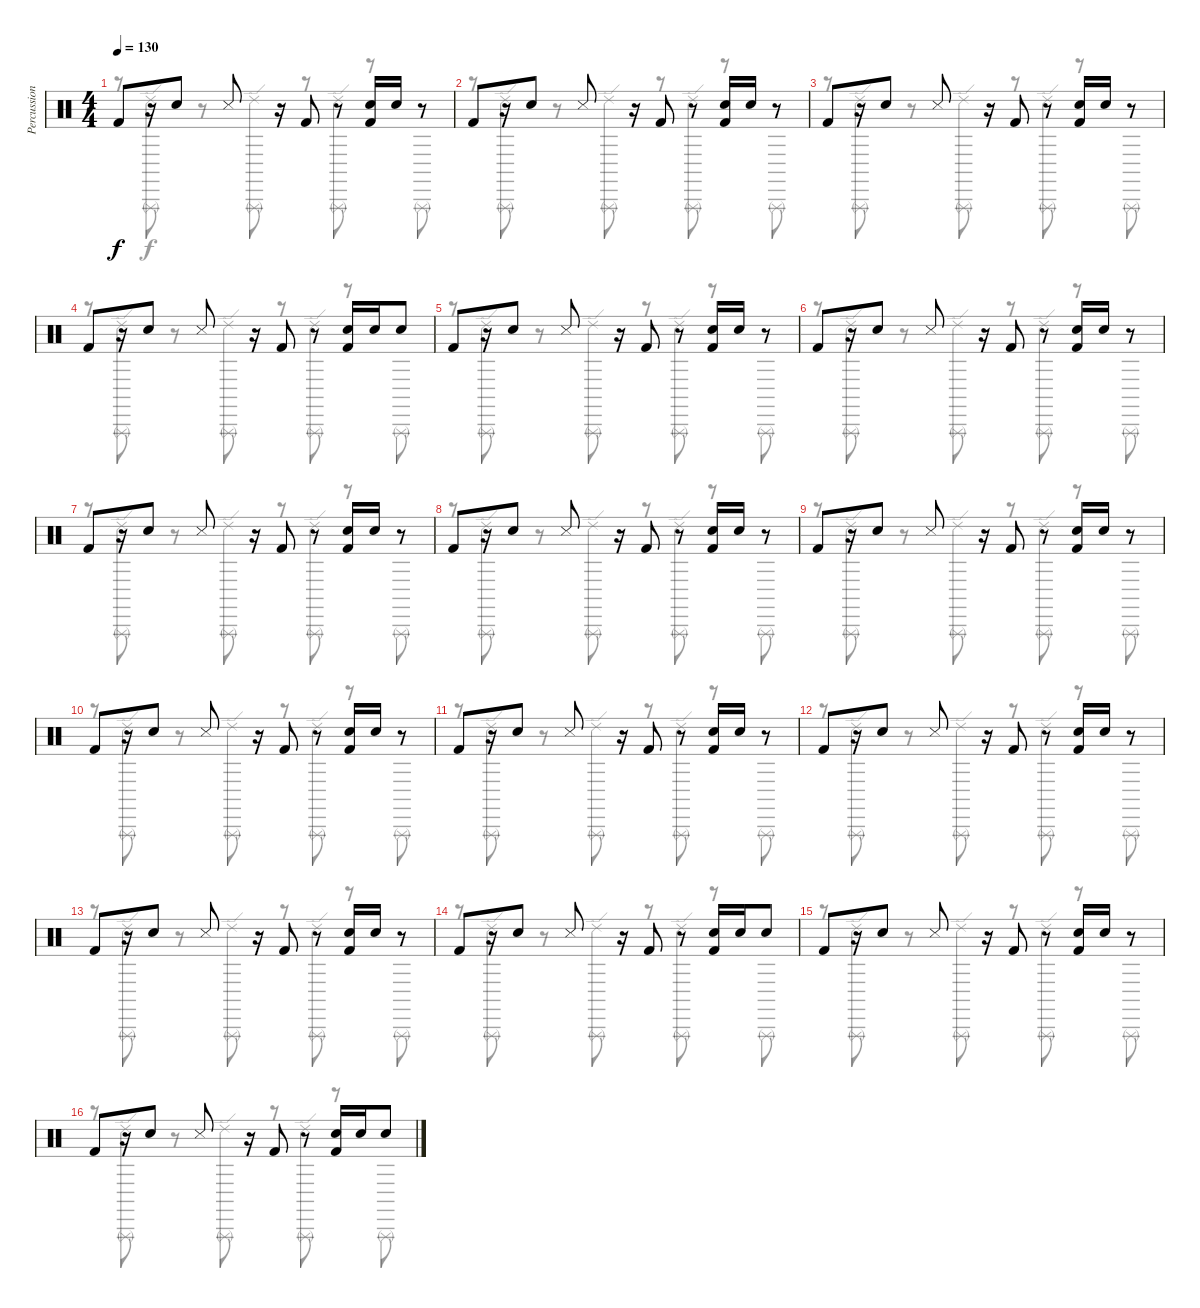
\track ("Percussion" "Percussion") {instrument percussion}
\staff {score}
\articulation defaults
\voice
\ts (4 4)
\tempo 130
\clef neutral
\ks c "Kick (hit) 2".8{dy f}
r.16 "Electric Snare (hit)".8 "Snare (side stick) 3".8 r.16 "Kick (hit) 2".8 r.8 ("Electric Snare (hit)" "Kick (hit) 2").16 "Electric Snare (hit)".16 r.8 |
"Kick (hit) 2".8 r.16 "Electric Snare (hit)".8 "Snare (side stick) 3".8 r.16 "Kick (hit) 2".8 r.8 ("Electric Snare (hit)" "Kick (hit) 2").16 "Electric Snare (hit)".16 r.8 |
"Kick (hit) 2".8 r.16 "Electric Snare (hit)".8 "Snare (side stick) 3".8 r.16 "Kick (hit) 2".8 r.8 ("Electric Snare (hit)" "Kick (hit) 2").16 "Electric Snare (hit)".16 r.8 |
"Kick (hit) 2".8 r.16 "Electric Snare (hit)".8 "Snare (side stick) 3".8 r.16 "Kick (hit) 2".8 r.8 ("Electric Snare (hit)" "Kick (hit) 2").16 "Electric Snare (hit)".16 "Electric Snare (hit)".8 |
"Kick (hit) 2".8 r.16 "Electric Snare (hit)".8 "Snare (side stick) 3".8 r.16 "Kick (hit) 2".8 r.8 ("Electric Snare (hit)" "Kick (hit) 2").16 "Electric Snare (hit)".16 r.8 |
"Kick (hit) 2".8 r.16 "Electric Snare (hit)".8 "Snare (side stick) 3".8 r.16 "Kick (hit) 2".8 r.8 ("Electric Snare (hit)" "Kick (hit) 2").16 "Electric Snare (hit)".16 r.8 |
"Kick (hit) 2".8 r.16 "Electric Snare (hit)".8 "Snare (side stick) 3".8 r.16 "Kick (hit) 2".8 r.8 ("Electric Snare (hit)" "Kick (hit) 2").16 "Electric Snare (hit)".16 r.8 |
"Kick (hit) 2".8 r.16 "Electric Snare (hit)".8 "Snare (side stick) 3".8 r.16 "Kick (hit) 2".8 r.8 ("Electric Snare (hit)" "Kick (hit) 2").16 "Electric Snare (hit)".16 r.8 |
"Kick (hit) 2".8 r.16 "Electric Snare (hit)".8 "Snare (side stick) 3".8 r.16 "Kick (hit) 2".8 r.8 ("Electric Snare (hit)" "Kick (hit) 2").16 "Electric Snare (hit)".16 r.8 |
"Kick (hit) 2".8 r.16 "Electric Snare (hit)".8 "Snare (side stick) 3".8 r.16 "Kick (hit) 2".8 r.8 ("Electric Snare (hit)" "Kick (hit) 2").16 "Electric Snare (hit)".16 r.8 |
"Kick (hit) 2".8 r.16 "Electric Snare (hit)".8 "Snare (side stick) 3".8 r.16 "Kick (hit) 2".8 r.8 ("Electric Snare (hit)" "Kick (hit) 2").16 "Electric Snare (hit)".16 r.8 |
"Kick (hit) 2".8 r.16 "Electric Snare (hit)".8 "Snare (side stick) 3".8 r.16 "Kick (hit) 2".8 r.8 ("Electric Snare (hit)" "Kick (hit) 2").16 "Electric Snare (hit)".16 r.8 |
"Kick (hit) 2".8 r.16 "Electric Snare (hit)".8 "Snare (side stick) 3".8 r.16 "Kick (hit) 2".8 r.8 ("Electric Snare (hit)" "Kick (hit) 2").16 "Electric Snare (hit)".16 r.8 |
"Kick (hit) 2".8 r.16 "Electric Snare (hit)".8 "Snare (side stick) 3".8 r.16 "Kick (hit) 2".8 r.8 ("Electric Snare (hit)" "Kick (hit) 2").16 "Electric Snare (hit)".16 "Electric Snare (hit)".8 |
"Kick (hit) 2".8 r.16 "Electric Snare (hit)".8 "Snare (side stick) 3".8 r.16 "Kick (hit) 2".8 r.8 ("Electric Snare (hit)" "Kick (hit) 2").16 "Electric Snare (hit)".16 r.8 |
"Kick (hit) 2".8 r.16 "Electric Snare (hit)".8 "Snare (side stick) 3".8 r.16 "Kick (hit) 2".8 r.8 ("Electric Snare (hit)" "Kick (hit) 2").16 "Electric Snare (hit)".16 "Electric Snare (hit)".8
\voice
\clef neutral
\ottava regular
\simile none
\ks c
r.8{dy f} ("Triangle (rnute)" "Ride (edge) 2").8 r.8 ("Triangle (rnute)" "Ride (edge) 2").8 r.8 ("Triangle (rnute)" "Ride (edge) 2").8 r.8 "Triangle (rnute)".8 |
r.8 ("Triangle (rnute)" "Ride (edge) 2").8 r.8 ("Triangle (rnute)" "Ride (edge) 2").8 r.8 ("Triangle (rnute)" "Ride (edge) 2").8 r.8 "Triangle (rnute)".8 |
r.8 ("Triangle (rnute)" "Ride (edge) 2").8 r.8 ("Triangle (rnute)" "Ride (edge) 2").8 r.8 ("Triangle (rnute)" "Ride (edge) 2").8 r.8 "Triangle (rnute)".8 |
r.8 ("Triangle (rnute)" "Ride (edge) 2").8 r.8 ("Triangle (rnute)" "Ride (edge) 2").8 r.8 ("Triangle (rnute)" "Ride (edge) 2").8 r.8 "Triangle (rnute)".8 |
r.8 ("Triangle (rnute)" "Ride (edge) 2").8 r.8 ("Triangle (rnute)" "Ride (edge) 2").8 r.8 ("Triangle (rnute)" "Ride (edge) 2").8 r.8 "Triangle (rnute)".8 |
r.8 ("Triangle (rnute)" "Ride (edge) 2").8 r.8 ("Triangle (rnute)" "Ride (edge) 2").8 r.8 ("Triangle (rnute)" "Ride (edge) 2").8 r.8 "Triangle (rnute)".8 |
r.8 ("Triangle (rnute)" "Ride (edge) 2").8 r.8 ("Triangle (rnute)" "Ride (edge) 2").8 r.8 ("Triangle (rnute)" "Ride (edge) 2").8 r.8 "Triangle (rnute)".8 |
r.8 ("Triangle (rnute)" "Ride (edge) 2").8 r.8 ("Triangle (rnute)" "Ride (edge) 2").8 r.8 ("Triangle (rnute)" "Ride (edge) 2").8 r.8 "Triangle (rnute)".8 |
r.8 ("Triangle (rnute)" "Ride (edge) 2").8 r.8 ("Triangle (rnute)" "Ride (edge) 2").8 r.8 ("Triangle (rnute)" "Ride (edge) 2").8 r.8 "Triangle (rnute)".8 |
r.8 ("Triangle (rnute)" "Ride (edge) 2").8 r.8 ("Triangle (rnute)" "Ride (edge) 2").8 r.8 ("Triangle (rnute)" "Ride (edge) 2").8 r.8 "Triangle (rnute)".8 |
r.8 ("Triangle (rnute)" "Ride (edge) 2").8 r.8 ("Triangle (rnute)" "Ride (edge) 2").8 r.8 ("Triangle (rnute)" "Ride (edge) 2").8 r.8 "Triangle (rnute)".8 |
r.8 ("Triangle (rnute)" "Ride (edge) 2").8 r.8 ("Triangle (rnute)" "Ride (edge) 2").8 r.8 ("Triangle (rnute)" "Ride (edge) 2").8 r.8 "Triangle (rnute)".8 |
r.8 ("Triangle (rnute)" "Ride (edge) 2").8 r.8 ("Triangle (rnute)" "Ride (edge) 2").8 r.8 ("Triangle (rnute)" "Ride (edge) 2").8 r.8 "Triangle (rnute)".8 |
r.8 ("Triangle (rnute)" "Ride (edge) 2").8 r.8 ("Triangle (rnute)" "Ride (edge) 2").8 r.8 ("Triangle (rnute)" "Ride (edge) 2").8 r.8 "Triangle (rnute)".8 |
r.8 ("Triangle (rnute)" "Ride (edge) 2").8 r.8 ("Triangle (rnute)" "Ride (edge) 2").8 r.8 ("Triangle (rnute)" "Ride (edge) 2").8 r.8 "Triangle (rnute)".8 |
r.8 ("Triangle (rnute)" "Ride (edge) 2").8 r.8 ("Triangle (rnute)" "Ride (edge) 2").8 r.8 ("Triangle (rnute)" "Ride (edge) 2").8 r.8 "Triangle (rnute)".8
